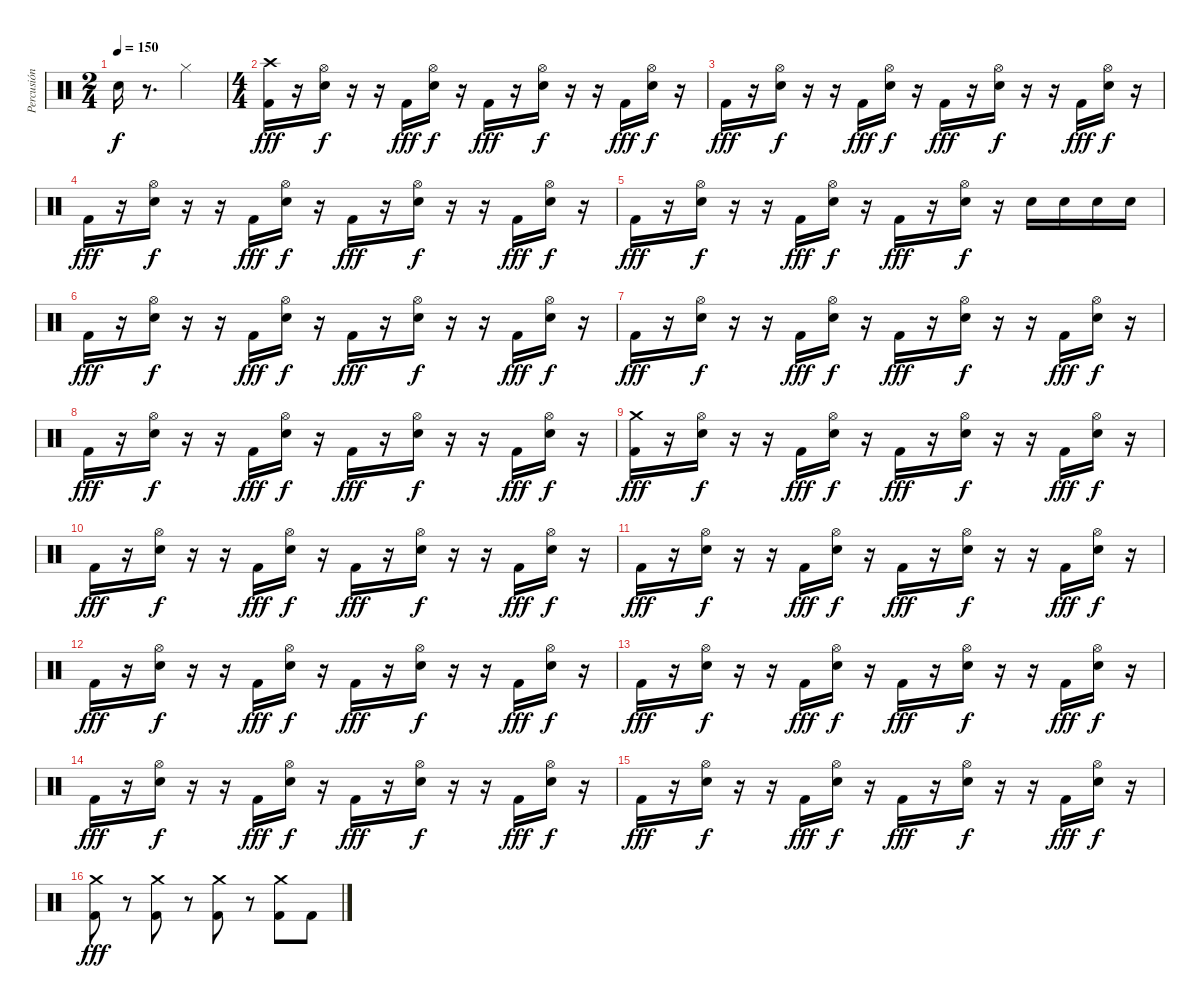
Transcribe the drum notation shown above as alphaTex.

\track ("Percusión" "Percusión") {instrument percussion}
\staff {score}
\articulation defaults
\ts (2 4)
\tempo 150
\clef neutral
\ks c "Electric Snare (hit)".16{dy f}
r.8{d} "Hi-Hat (closed)".4 |
\ts (4 4)
("Kick (hit) 2" "Crash high (hit)").16{dy fff} r.16 ("Electric Snare (hit)" "Hi-Hat (open)").16{dy f} r.16 r.16 "Kick (hit) 2".16{dy fff} ("Electric Snare (hit)" "Hi-Hat (open)").16{dy f} r.16 "Kick (hit) 2".16{dy fff} r.16 ("Electric Snare (hit)" "Hi-Hat (open)").16{dy f} r.16 r.16 "Kick (hit) 2".16{dy fff} ("Electric Snare (hit)" "Hi-Hat (open)").16{dy f} r.16 |
"Kick (hit) 2".16{dy fff} r.16 ("Electric Snare (hit)" "Hi-Hat (open)").16{dy f} r.16 r.16 "Kick (hit) 2".16{dy fff} ("Electric Snare (hit)" "Hi-Hat (open)").16{dy f} r.16 "Kick (hit) 2".16{dy fff} r.16 ("Electric Snare (hit)" "Hi-Hat (open)").16{dy f} r.16 r.16 "Kick (hit) 2".16{dy fff} ("Electric Snare (hit)" "Hi-Hat (open)").16{dy f} r.16 |
"Kick (hit) 2".16{dy fff} r.16 ("Electric Snare (hit)" "Hi-Hat (open)").16{dy f} r.16 r.16 "Kick (hit) 2".16{dy fff} ("Electric Snare (hit)" "Hi-Hat (open)").16{dy f} r.16 "Kick (hit) 2".16{dy fff} r.16 ("Electric Snare (hit)" "Hi-Hat (open)").16{dy f} r.16 r.16 "Kick (hit) 2".16{dy fff} ("Electric Snare (hit)" "Hi-Hat (open)").16{dy f} r.16 |
"Kick (hit) 2".16{dy fff} r.16 ("Electric Snare (hit)" "Hi-Hat (open)").16{dy f} r.16 r.16 "Kick (hit) 2".16{dy fff} ("Electric Snare (hit)" "Hi-Hat (open)").16{dy f} r.16 "Kick (hit) 2".16{dy fff} r.16 ("Electric Snare (hit)" "Hi-Hat (open)").16{dy f} r.16 "Electric Snare (hit)".16 "Electric Snare (hit)".16 "Electric Snare (hit)".16 "Electric Snare (hit)".16 |
"Kick (hit) 2".16{dy fff} r.16 ("Electric Snare (hit)" "Hi-Hat (open)").16{dy f} r.16 r.16 "Kick (hit) 2".16{dy fff} ("Electric Snare (hit)" "Hi-Hat (open)").16{dy f} r.16 "Kick (hit) 2".16{dy fff} r.16 ("Electric Snare (hit)" "Hi-Hat (open)").16{dy f} r.16 r.16 "Kick (hit) 2".16{dy fff} ("Electric Snare (hit)" "Hi-Hat (open)").16{dy f} r.16 |
"Kick (hit) 2".16{dy fff} r.16 ("Electric Snare (hit)" "Hi-Hat (open)").16{dy f} r.16 r.16 "Kick (hit) 2".16{dy fff} ("Electric Snare (hit)" "Hi-Hat (open)").16{dy f} r.16 "Kick (hit) 2".16{dy fff} r.16 ("Electric Snare (hit)" "Hi-Hat (open)").16{dy f} r.16 r.16 "Kick (hit) 2".16{dy fff} ("Electric Snare (hit)" "Hi-Hat (open)").16{dy f} r.16 |
"Kick (hit) 2".16{dy fff} r.16 ("Electric Snare (hit)" "Hi-Hat (open)").16{dy f} r.16 r.16 "Kick (hit) 2".16{dy fff} ("Electric Snare (hit)" "Hi-Hat (open)").16{dy f} r.16 "Kick (hit) 2".16{dy fff} r.16 ("Electric Snare (hit)" "Hi-Hat (open)").16{dy f} r.16 r.16 "Kick (hit) 2".16{dy fff} ("Electric Snare (hit)" "Hi-Hat (open)").16{dy f} r.16 |
("Kick (hit) 2" "Crash medium (hit)").16{dy fff} r.16 ("Electric Snare (hit)" "Hi-Hat (open)").16{dy f} r.16 r.16 "Kick (hit) 2".16{dy fff} ("Electric Snare (hit)" "Hi-Hat (open)").16{dy f} r.16 "Kick (hit) 2".16{dy fff} r.16 ("Electric Snare (hit)" "Hi-Hat (open)").16{dy f} r.16 r.16 "Kick (hit) 2".16{dy fff} ("Electric Snare (hit)" "Hi-Hat (open)").16{dy f} r.16 |
"Kick (hit) 2".16{dy fff} r.16 ("Electric Snare (hit)" "Hi-Hat (open)").16{dy f} r.16 r.16 "Kick (hit) 2".16{dy fff} ("Electric Snare (hit)" "Hi-Hat (open)").16{dy f} r.16 "Kick (hit) 2".16{dy fff} r.16 ("Electric Snare (hit)" "Hi-Hat (open)").16{dy f} r.16 r.16 "Kick (hit) 2".16{dy fff} ("Electric Snare (hit)" "Hi-Hat (open)").16{dy f} r.16 |
"Kick (hit) 2".16{dy fff} r.16 ("Electric Snare (hit)" "Hi-Hat (open)").16{dy f} r.16 r.16 "Kick (hit) 2".16{dy fff} ("Electric Snare (hit)" "Hi-Hat (open)").16{dy f} r.16 "Kick (hit) 2".16{dy fff} r.16 ("Electric Snare (hit)" "Hi-Hat (open)").16{dy f} r.16 r.16 "Kick (hit) 2".16{dy fff} ("Electric Snare (hit)" "Hi-Hat (open)").16{dy f} r.16 |
"Kick (hit) 2".16{dy fff} r.16 ("Electric Snare (hit)" "Hi-Hat (open)").16{dy f} r.16 r.16 "Kick (hit) 2".16{dy fff} ("Electric Snare (hit)" "Hi-Hat (open)").16{dy f} r.16 "Kick (hit) 2".16{dy fff} r.16 ("Electric Snare (hit)" "Hi-Hat (open)").16{dy f} r.16 r.16 "Kick (hit) 2".16{dy fff} ("Electric Snare (hit)" "Hi-Hat (open)").16{dy f} r.16 |
"Kick (hit) 2".16{dy fff} r.16 ("Electric Snare (hit)" "Hi-Hat (open)").16{dy f} r.16 r.16 "Kick (hit) 2".16{dy fff} ("Electric Snare (hit)" "Hi-Hat (open)").16{dy f} r.16 "Kick (hit) 2".16{dy fff} r.16 ("Electric Snare (hit)" "Hi-Hat (open)").16{dy f} r.16 r.16 "Kick (hit) 2".16{dy fff} ("Electric Snare (hit)" "Hi-Hat (open)").16{dy f} r.16 |
"Kick (hit) 2".16{dy fff} r.16 ("Electric Snare (hit)" "Hi-Hat (open)").16{dy f} r.16 r.16 "Kick (hit) 2".16{dy fff} ("Electric Snare (hit)" "Hi-Hat (open)").16{dy f} r.16 "Kick (hit) 2".16{dy fff} r.16 ("Electric Snare (hit)" "Hi-Hat (open)").16{dy f} r.16 r.16 "Kick (hit) 2".16{dy fff} ("Electric Snare (hit)" "Hi-Hat (open)").16{dy f} r.16 |
"Kick (hit) 2".16{dy fff} r.16 ("Electric Snare (hit)" "Hi-Hat (open)").16{dy f} r.16 r.16 "Kick (hit) 2".16{dy fff} ("Electric Snare (hit)" "Hi-Hat (open)").16{dy f} r.16 "Kick (hit) 2".16{dy fff} r.16 ("Electric Snare (hit)" "Hi-Hat (open)").16{dy f} r.16 r.16 "Kick (hit) 2".16{dy fff} ("Electric Snare (hit)" "Hi-Hat (open)").16{dy f} r.16 |
("Kick (hit) 2" "Crash medium (hit)").8{dy fff} r.8 ("Kick (hit) 2" "Crash medium (hit)").8 r.8 ("Kick (hit) 2" "Crash medium (hit)").8 r.8 ("Kick (hit) 2" "Crash medium (hit)").8 "Kick (hit) 2".8
